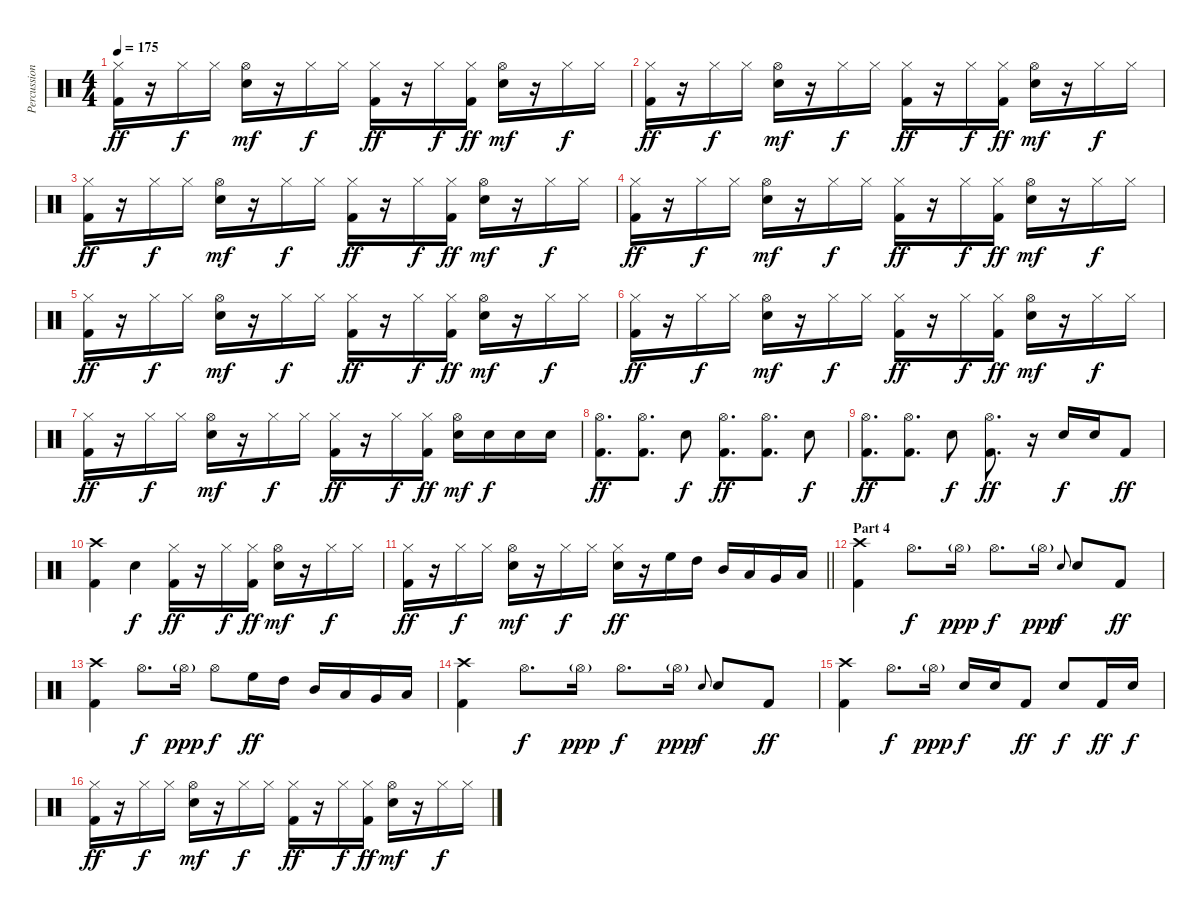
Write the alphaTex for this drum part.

\track ("Percussion" "Percussion") {instrument percussion}
\staff {score}
\articulation defaults
\ts (4 4)
\tempo 175
\clef neutral
\ks c
("Hi-Hat (closed)" "Kick (hit) 2").16{dy ff} r.16 "Hi-Hat (closed)".16{dy f} "Hi-Hat (closed)".16 ("Hi-Hat (open)" "Electric Snare (hit)").16{dy mf} r.16 "Hi-Hat (closed)".16{dy f} "Hi-Hat (closed)".16 ("Hi-Hat (closed)" "Kick (hit) 2").16{dy ff} r.16 "Hi-Hat (closed)".16{dy f} ("Hi-Hat (closed)" "Kick (hit) 2").16{dy ff} ("Hi-Hat (open)" "Electric Snare (hit)").16{dy mf} r.16 "Hi-Hat (closed)".16{dy f} "Hi-Hat (closed)".16 |
("Hi-Hat (closed)" "Kick (hit) 2").16{dy ff} r.16 "Hi-Hat (closed)".16{dy f} "Hi-Hat (closed)".16 ("Hi-Hat (open)" "Electric Snare (hit)").16{dy mf} r.16 "Hi-Hat (closed)".16{dy f} "Hi-Hat (closed)".16 ("Hi-Hat (closed)" "Kick (hit) 2").16{dy ff} r.16 "Hi-Hat (closed)".16{dy f} ("Hi-Hat (closed)" "Kick (hit) 2").16{dy ff} ("Hi-Hat (open)" "Electric Snare (hit)").16{dy mf} r.16 "Hi-Hat (closed)".16{dy f} "Hi-Hat (closed)".16 |
("Hi-Hat (closed)" "Kick (hit) 2").16{dy ff} r.16 "Hi-Hat (closed)".16{dy f} "Hi-Hat (closed)".16 ("Hi-Hat (open)" "Electric Snare (hit)").16{dy mf} r.16 "Hi-Hat (closed)".16{dy f} "Hi-Hat (closed)".16 ("Hi-Hat (closed)" "Kick (hit) 2").16{dy ff} r.16 "Hi-Hat (closed)".16{dy f} ("Hi-Hat (closed)" "Kick (hit) 2").16{dy ff} ("Hi-Hat (open)" "Electric Snare (hit)").16{dy mf} r.16 "Hi-Hat (closed)".16{dy f} "Hi-Hat (closed)".16 |
("Hi-Hat (closed)" "Kick (hit) 2").16{dy ff} r.16 "Hi-Hat (closed)".16{dy f} "Hi-Hat (closed)".16 ("Hi-Hat (open)" "Electric Snare (hit)").16{dy mf} r.16 "Hi-Hat (closed)".16{dy f} "Hi-Hat (closed)".16 ("Hi-Hat (closed)" "Kick (hit) 2").16{dy ff} r.16 "Hi-Hat (closed)".16{dy f} ("Hi-Hat (closed)" "Kick (hit) 2").16{dy ff} ("Hi-Hat (open)" "Electric Snare (hit)").16{dy mf} r.16 "Hi-Hat (closed)".16{dy f} "Hi-Hat (closed)".16 |
("Hi-Hat (closed)" "Kick (hit) 2").16{dy ff} r.16 "Hi-Hat (closed)".16{dy f} "Hi-Hat (closed)".16 ("Hi-Hat (open)" "Electric Snare (hit)").16{dy mf} r.16 "Hi-Hat (closed)".16{dy f} "Hi-Hat (closed)".16 ("Hi-Hat (closed)" "Kick (hit) 2").16{dy ff} r.16 "Hi-Hat (closed)".16{dy f} ("Hi-Hat (closed)" "Kick (hit) 2").16{dy ff} ("Hi-Hat (open)" "Electric Snare (hit)").16{dy mf} r.16 "Hi-Hat (closed)".16{dy f} "Hi-Hat (closed)".16 |
("Hi-Hat (closed)" "Kick (hit) 2").16{dy ff} r.16 "Hi-Hat (closed)".16{dy f} "Hi-Hat (closed)".16 ("Hi-Hat (open)" "Electric Snare (hit)").16{dy mf} r.16 "Hi-Hat (closed)".16{dy f} "Hi-Hat (closed)".16 ("Hi-Hat (closed)" "Kick (hit) 2").16{dy ff} r.16 "Hi-Hat (closed)".16{dy f} ("Hi-Hat (closed)" "Kick (hit) 2").16{dy ff} ("Hi-Hat (open)" "Electric Snare (hit)").16{dy mf} r.16 "Hi-Hat (closed)".16{dy f} "Hi-Hat (closed)".16 |
("Hi-Hat (closed)" "Kick (hit) 2").16{dy ff} r.16 "Hi-Hat (closed)".16{dy f} "Hi-Hat (closed)".16 ("Hi-Hat (open)" "Electric Snare (hit)").16{dy mf} r.16 "Hi-Hat (closed)".16{dy f} "Hi-Hat (closed)".16 ("Hi-Hat (closed)" "Kick (hit) 2").16{dy ff} r.16 "Hi-Hat (closed)".16{dy f} ("Hi-Hat (closed)" "Kick (hit) 2").16{dy ff} ("Hi-Hat (open)" "Electric Snare (hit)").16{dy mf} "Electric Snare (hit)".16{dy f} "Electric Snare (hit)".16 "Electric Snare (hit)".16 |
("Hi-Hat (open)" "Kick (hit) 2").8{d dy ff} ("Hi-Hat (open)" "Kick (hit) 2").8{d} "Electric Snare (hit)".8{dy f} ("Hi-Hat (open)" "Kick (hit) 2").8{d dy ff} ("Hi-Hat (open)" "Kick (hit) 2").8{d} "Electric Snare (hit)".8{dy f} |
("Hi-Hat (open)" "Kick (hit) 2").8{d dy ff} ("Hi-Hat (open)" "Kick (hit) 2").8{d} "Electric Snare (hit)".8{dy f} ("Hi-Hat (open)" "Kick (hit) 2").8{d dy ff} r.16 "Electric Snare (hit)".16{dy f} "Electric Snare (hit)".16 "Kick (hit) 2".8{dy ff} |
("Crash high (hit)" "Kick (hit) 2").4 "Electric Snare (hit)".4{dy f} ("Hi-Hat (closed)" "Kick (hit) 2").16{dy ff} r.16 "Hi-Hat (closed)".16{dy f} ("Hi-Hat (closed)" "Kick (hit) 2").16{dy ff} ("Hi-Hat (open)" "Electric Snare (hit)").16{dy mf} r.16 "Hi-Hat (closed)".16{dy f} "Hi-Hat (closed)".16 |
\barLineRight lightlight
("Hi-Hat (closed)" "Kick (hit) 2").16{dy ff} r.16 "Hi-Hat (closed)".16{dy f} "Hi-Hat (closed)".16 ("Hi-Hat (open)" "Electric Snare (hit)").16{dy mf} r.16 "Hi-Hat (closed)".16{dy f} "Hi-Hat (closed)".16 ("Hi-Hat (closed)" "Electric Snare (hit)").16{dy ff} r.16 "High Floor Tom (hit)".16 "High Tom (hit)".16 "Mid Tom (hit)".16 "Low Tom (hit)".16 "Very Low Tom (hit)".16 "Low Floor Tom (hit)".16 |
\section ("" "Part 4")
("Crash high (hit)" "Kick (hit) 2").4 "Hi-Hat (open)".8{d dy f} "Hi-Hat (open)"{g}.16{dy ppp} "Hi-Hat (open)".8{d dy f} "Hi-Hat (open)"{g}.16{dy ppp} "Electric Snare (hit)".8{gr onbeat dy f} "Electric Snare (hit)".8 "Kick (hit) 2".8{dy ff} |
("Crash high (hit)" "Kick (hit) 2").4 "Hi-Hat (open)".8{d dy f} "Hi-Hat (open)"{g}.16{dy ppp} "Hi-Hat (open)".8{dy f} "High Floor Tom (hit)".16{dy ff} "High Tom (hit)".16 "Mid Tom (hit)".16 "Low Tom (hit)".16 "Very Low Tom (hit)".16 "Low Floor Tom (hit)".16 |
("Crash high (hit)" "Kick (hit) 2").4 "Hi-Hat (open)".8{d dy f} "Hi-Hat (open)"{g}.16{dy ppp} "Hi-Hat (open)".8{d dy f} "Hi-Hat (open)"{g}.16{dy ppp} "Electric Snare (hit)".8{gr onbeat dy f} "Electric Snare (hit)".8 "Kick (hit) 2".8{dy ff} |
("Crash high (hit)" "Kick (hit) 2").4 "Hi-Hat (open)".8{d dy f} "Hi-Hat (open)"{g}.16{dy ppp} "Electric Snare (hit)".16{dy f} "Electric Snare (hit)".16 "Kick (hit) 2".8{dy ff} "Electric Snare (hit)".8{dy f} "Kick (hit) 2".16{dy ff} "Electric Snare (hit)".16{dy f} |
("Hi-Hat (closed)" "Kick (hit) 2").16{dy ff} r.16 "Hi-Hat (closed)".16{dy f} "Hi-Hat (closed)".16 ("Hi-Hat (open)" "Electric Snare (hit)").16{dy mf} r.16 "Hi-Hat (closed)".16{dy f} "Hi-Hat (closed)".16 ("Hi-Hat (closed)" "Kick (hit) 2").16{dy ff} r.16 "Hi-Hat (closed)".16{dy f} ("Hi-Hat (closed)" "Kick (hit) 2").16{dy ff} ("Hi-Hat (open)" "Electric Snare (hit)").16{dy mf} r.16 "Hi-Hat (closed)".16{dy f} "Hi-Hat (closed)".16
